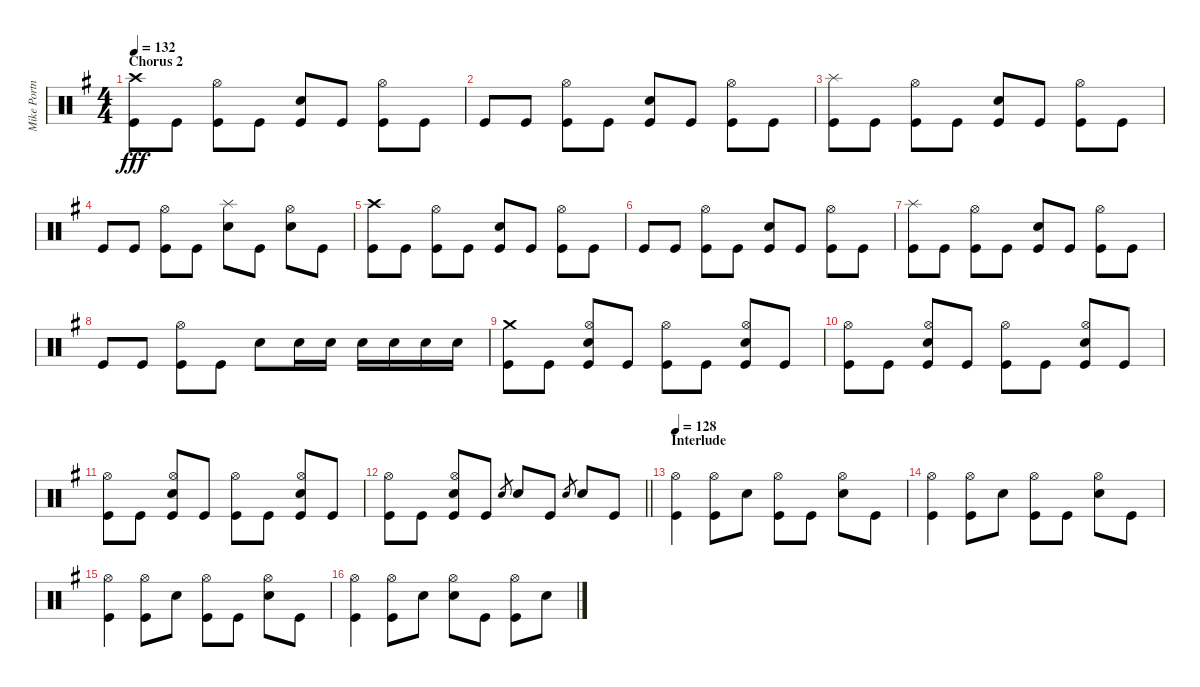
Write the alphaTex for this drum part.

\track ("Mike Portnoy" "Mike Portn") {instrument percussion}
\staff {score}
\articulation defaults
\ts (4 4)
\section ("" "Chorus 2")
\tempo 132
\clef neutral
\ks eminor
("Kick (hit)" "Crash high (hit)").8{dy fff} "Kick (hit)".8 ("Kick (hit)" "Hi-Hat (open)").8 "Kick (hit)".8 ("Kick (hit)" "Snare (hit) 2").8 "Kick (hit)".8 ("Kick (hit)" "Hi-Hat (open)").8 "Kick (hit)".8 |
"Kick (hit)".8 "Kick (hit)".8 ("Kick (hit)" "Hi-Hat (open)").8 "Kick (hit)".8 ("Kick (hit)" "Snare (hit) 2").8 "Kick (hit)".8 ("Kick (hit)" "Hi-Hat (open)").8 "Kick (hit)".8 |
("Kick (hit)" "Splash (hit)").8 "Kick (hit)".8 ("Kick (hit)" "Hi-Hat (open)").8 "Kick (hit)".8 ("Kick (hit)" "Snare (hit) 2").8 "Kick (hit)".8 ("Kick (hit)" "Hi-Hat (open)").8 "Kick (hit)".8 |
"Kick (hit)".8 "Kick (hit)".8 ("Kick (hit)" "Hi-Hat (open)").8 "Kick (hit)".8 ("Snare (hit) 2" "Splash (hit)").8 "Kick (hit)".8 ("Snare (hit) 2" "Hi-Hat (open)").8 "Kick (hit)".8 |
("Kick (hit)" "Crash high (hit)").8 "Kick (hit)".8 ("Kick (hit)" "Hi-Hat (open)").8 "Kick (hit)".8 ("Kick (hit)" "Snare (hit) 2").8 "Kick (hit)".8 ("Kick (hit)" "Hi-Hat (open)").8 "Kick (hit)".8 |
"Kick (hit)".8 "Kick (hit)".8 ("Kick (hit)" "Hi-Hat (open)").8 "Kick (hit)".8 ("Kick (hit)" "Snare (hit) 2").8 "Kick (hit)".8 ("Kick (hit)" "Hi-Hat (open)").8 "Kick (hit)".8 |
("Kick (hit)" "Splash (hit)").8 "Kick (hit)".8 ("Kick (hit)" "Hi-Hat (open)").8 "Kick (hit)".8 ("Kick (hit)" "Snare (hit) 2").8 "Kick (hit)".8 ("Kick (hit)" "Hi-Hat (open)").8 "Kick (hit)".8 |
"Kick (hit)".8 "Kick (hit)".8 ("Kick (hit)" "Hi-Hat (open)").8 "Kick (hit)".8 "Snare (hit) 2".8 "Snare (hit) 2".16 "Snare (hit) 2".16 "Snare (hit) 2".16 "Snare (hit) 2".16 "Snare (hit) 2".16 "Snare (hit) 2".16 |
("Kick (hit)" "Crash medium (hit)").8 "Kick (hit)".8 ("Kick (hit)" "Hi-Hat (open)" "Snare (hit) 2").8 "Kick (hit)".8 ("Kick (hit)" "Hi-Hat (open)").8 "Kick (hit)".8 ("Kick (hit)" "Hi-Hat (open)" "Snare (hit) 2").8 "Kick (hit)".8 |
("Kick (hit)" "Hi-Hat (open)").8 "Kick (hit)".8 ("Kick (hit)" "Hi-Hat (open)" "Snare (hit) 2").8 "Kick (hit)".8 ("Kick (hit)" "Hi-Hat (open)").8 "Kick (hit)".8 ("Kick (hit)" "Hi-Hat (open)" "Snare (hit) 2").8 "Kick (hit)".8 |
("Kick (hit)" "Hi-Hat (open)").8 "Kick (hit)".8 ("Kick (hit)" "Hi-Hat (open)" "Snare (hit) 2").8 "Kick (hit)".8 ("Kick (hit)" "Hi-Hat (open)").8 "Kick (hit)".8 ("Kick (hit)" "Hi-Hat (open)" "Snare (hit) 2").8 "Kick (hit)".8 |
\barLineRight lightlight
("Kick (hit)" "Hi-Hat (open)").8 "Kick (hit)".8 ("Kick (hit)" "Hi-Hat (open)" "Snare (hit) 2").8 "Kick (hit)".8 "Snare (hit) 2".8{gr} "Snare (hit) 2".8 "Kick (hit)".8 "Snare (hit) 2".8{gr} "Snare (hit) 2".8 "Kick (hit)".8 |
\section ("" "Interlude")
\tempo 128
("Kick (hit)" "Hi-Hat (open)").4 ("Kick (hit)" "Hi-Hat (open)").8 "Snare (hit) 2".8 ("Kick (hit)" "Hi-Hat (open)").8 "Kick (hit)".8 ("Snare (hit) 2" "Hi-Hat (open)").8 "Kick (hit)".8 |
("Kick (hit)" "Hi-Hat (open)").4 ("Kick (hit)" "Hi-Hat (open)").8 "Snare (hit) 2".8 ("Kick (hit)" "Hi-Hat (open)").8 "Kick (hit)".8 ("Snare (hit) 2" "Hi-Hat (open)").8 "Kick (hit)".8 |
("Kick (hit)" "Hi-Hat (open)").4 ("Kick (hit)" "Hi-Hat (open)").8 "Snare (hit) 2".8 ("Kick (hit)" "Hi-Hat (open)").8 "Kick (hit)".8 ("Snare (hit) 2" "Hi-Hat (open)").8 "Kick (hit)".8 |
("Kick (hit)" "Hi-Hat (open)").4 ("Kick (hit)" "Hi-Hat (open)").8 "Snare (hit) 2".8 ("Snare (hit) 2" "Hi-Hat (open)").8 "Kick (hit)".8 ("Kick (hit)" "Hi-Hat (open)").8 "Snare (hit) 2".8
